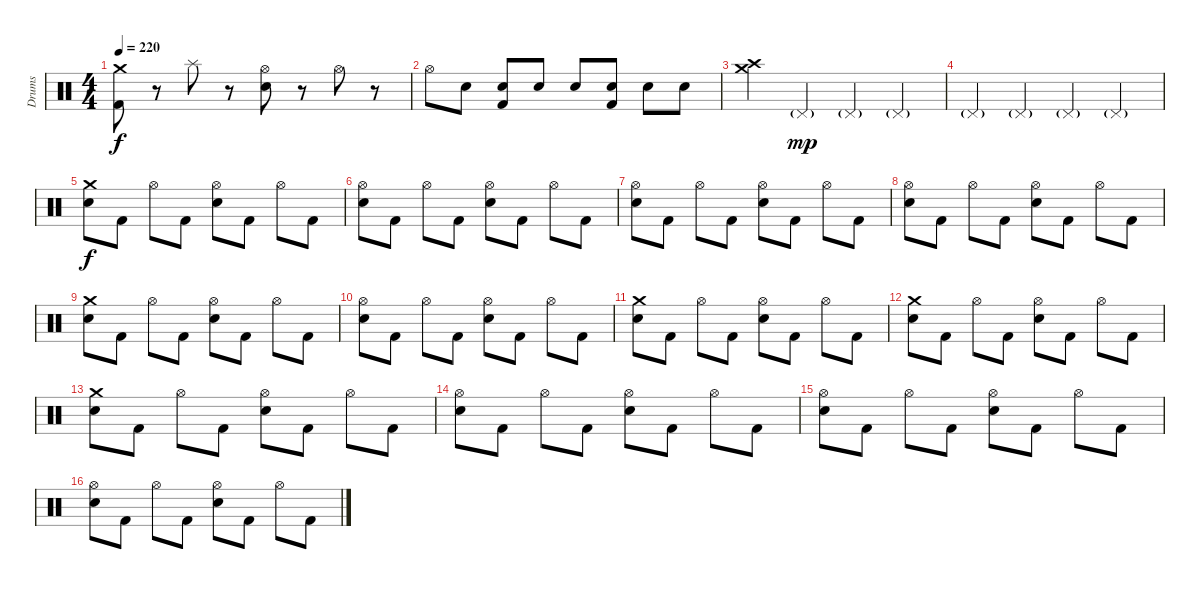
\track ("Drums" "Drums") {instrument percussion}
\staff {score}
\articulation defaults
\ts (4 4)
\tempo 220
\clef neutral
\ks c
("Crash medium (hit)" "Kick (hit) 2").8{dy f} r.8 "Splash (hit)".8 r.8 ("Hi-Hat (open)" "Electric Snare (hit)").8 r.8 "Hi-Hat (open)".8 r.8 |
"Hi-Hat (open)".8 "Electric Snare (hit)".8 ("Electric Snare (hit)" "Kick (hit) 2").8 "Electric Snare (hit)".8 "Electric Snare (hit)".8 ("Electric Snare (hit)" "Kick (hit) 2").8 "Electric Snare (hit)".8 "Electric Snare (hit)".8 |
("Crash medium (hit)" "Crash high (hit)").4 "Pedal Hi-Hat (hit)"{g}.4{dy mp} "Pedal Hi-Hat (hit)"{g}.4 "Pedal Hi-Hat (hit)"{g}.4 |
"Pedal Hi-Hat (hit)"{g}.4 "Pedal Hi-Hat (hit)"{g}.4 "Pedal Hi-Hat (hit)"{g}.4 "Pedal Hi-Hat (hit)"{g}.4 |
("Crash medium (hit)" "Electric Snare (hit)").8{dy f} "Kick (hit) 2".8 "Hi-Hat (open)".8 "Kick (hit) 2".8 ("Hi-Hat (open)" "Electric Snare (hit)").8 "Kick (hit) 2".8 "Hi-Hat (open)".8 "Kick (hit) 2".8 |
("Hi-Hat (open)" "Electric Snare (hit)").8 "Kick (hit) 2".8 "Hi-Hat (open)".8 "Kick (hit) 2".8 ("Hi-Hat (open)" "Electric Snare (hit)").8 "Kick (hit) 2".8 "Hi-Hat (open)".8 "Kick (hit) 2".8 |
("Hi-Hat (open)" "Electric Snare (hit)").8 "Kick (hit) 2".8 "Hi-Hat (open)".8 "Kick (hit) 2".8 ("Hi-Hat (open)" "Electric Snare (hit)").8 "Kick (hit) 2".8 "Hi-Hat (open)".8 "Kick (hit) 2".8 |
("Hi-Hat (open)" "Electric Snare (hit)").8 "Kick (hit) 2".8 "Hi-Hat (open)".8 "Kick (hit) 2".8 ("Hi-Hat (open)" "Electric Snare (hit)").8 "Kick (hit) 2".8 "Hi-Hat (open)".8 "Kick (hit) 2".8 |
("Crash medium (hit)" "Electric Snare (hit)").8 "Kick (hit) 2".8 "Hi-Hat (open)".8 "Kick (hit) 2".8 ("Hi-Hat (open)" "Electric Snare (hit)").8 "Kick (hit) 2".8 "Hi-Hat (open)".8 "Kick (hit) 2".8 |
("Hi-Hat (open)" "Electric Snare (hit)").8 "Kick (hit) 2".8 "Hi-Hat (open)".8 "Kick (hit) 2".8 ("Hi-Hat (open)" "Electric Snare (hit)").8 "Kick (hit) 2".8 "Hi-Hat (open)".8 "Kick (hit) 2".8 |
("Crash medium (hit)" "Electric Snare (hit)").8 "Kick (hit) 2".8 "Hi-Hat (open)".8 "Kick (hit) 2".8 ("Hi-Hat (open)" "Electric Snare (hit)").8 "Kick (hit) 2".8 "Hi-Hat (open)".8 "Kick (hit) 2".8 |
("Crash medium (hit)" "Electric Snare (hit)").8 "Kick (hit) 2".8 "Hi-Hat (open)".8 "Kick (hit) 2".8 ("Hi-Hat (open)" "Electric Snare (hit)").8 "Kick (hit) 2".8 "Hi-Hat (open)".8 "Kick (hit) 2".8 |
("Crash medium (hit)" "Electric Snare (hit)").8 "Kick (hit) 2".8 "Hi-Hat (open)".8 "Kick (hit) 2".8 ("Hi-Hat (open)" "Electric Snare (hit)").8 "Kick (hit) 2".8 "Hi-Hat (open)".8 "Kick (hit) 2".8 |
("Hi-Hat (open)" "Electric Snare (hit)").8 "Kick (hit) 2".8 "Hi-Hat (open)".8 "Kick (hit) 2".8 ("Hi-Hat (open)" "Electric Snare (hit)").8 "Kick (hit) 2".8 "Hi-Hat (open)".8 "Kick (hit) 2".8 |
("Hi-Hat (open)" "Electric Snare (hit)").8 "Kick (hit) 2".8 "Hi-Hat (open)".8 "Kick (hit) 2".8 ("Hi-Hat (open)" "Electric Snare (hit)").8 "Kick (hit) 2".8 "Hi-Hat (open)".8 "Kick (hit) 2".8 |
("Hi-Hat (open)" "Electric Snare (hit)").8 "Kick (hit) 2".8 "Hi-Hat (open)".8 "Kick (hit) 2".8 ("Hi-Hat (open)" "Electric Snare (hit)").8 "Kick (hit) 2".8 "Hi-Hat (open)".8 "Kick (hit) 2".8
